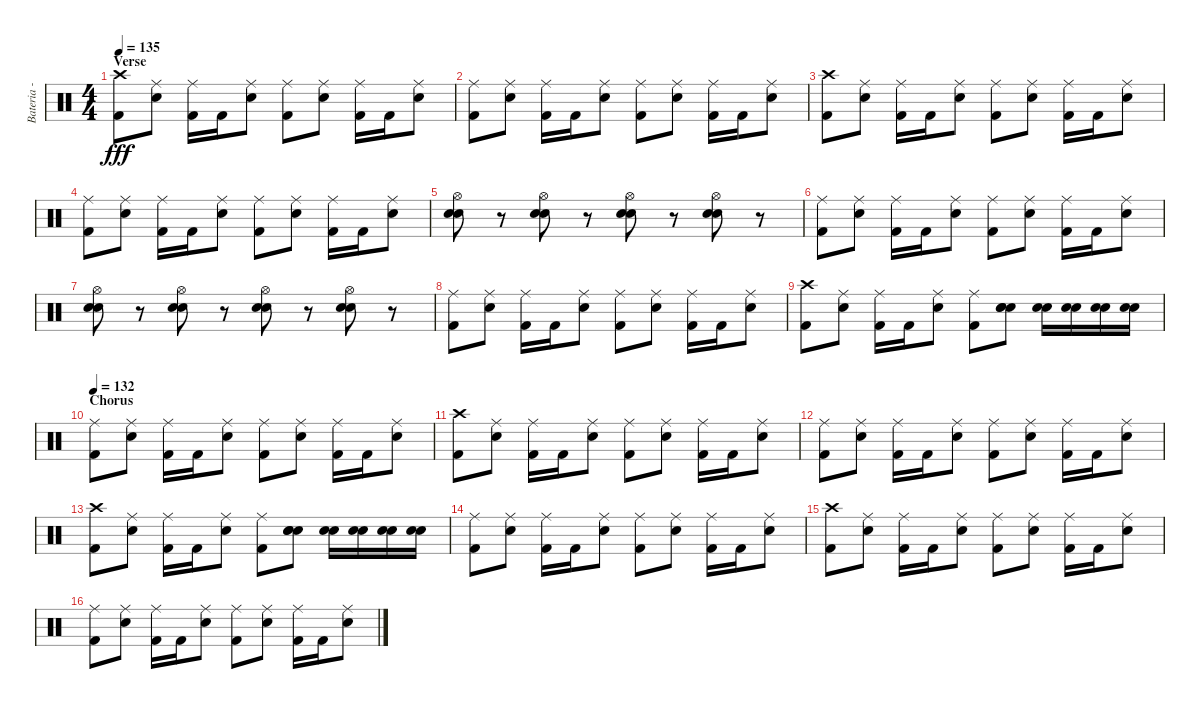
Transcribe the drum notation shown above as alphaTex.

\track ("Bateria - Larzon" "Bateria - ") {instrument percussion}
\staff {score}
\articulation defaults
\ts (4 4)
\section ("" "Verse")
\tempo 135
\clef neutral
\ks c
("Kick (hit) 2" "Crash high (hit)").8{dy fff} ("Electric Snare (hit)" "Ride (middle)").8 ("Ride (middle)" "Kick (hit) 2").16 "Kick (hit) 2".16 ("Electric Snare (hit)" "Ride (middle)").8 ("Kick (hit) 2" "Ride (middle)").8 ("Electric Snare (hit)" "Ride (middle)").8 ("Kick (hit) 2" "Ride (middle)").16 "Kick (hit) 2".16 ("Electric Snare (hit)" "Ride (middle)").8 |
("Kick (hit) 2" "Ride (middle)").8 ("Electric Snare (hit)" "Ride (middle)").8 ("Kick (hit) 2" "Ride (middle)").16 "Kick (hit) 2".16 ("Electric Snare (hit)" "Ride (middle)").8 ("Kick (hit) 2" "Ride (middle)").8 ("Electric Snare (hit)" "Ride (middle)").8 ("Kick (hit) 2" "Ride (middle)").16 "Kick (hit) 2".16 ("Electric Snare (hit)" "Ride (middle)").8 |
("Kick (hit) 2" "Crash high (hit)").8 ("Electric Snare (hit)" "Ride (middle)").8 ("Ride (middle)" "Kick (hit) 2").16 "Kick (hit) 2".16 ("Electric Snare (hit)" "Ride (middle)").8 ("Kick (hit) 2" "Ride (middle)").8 ("Electric Snare (hit)" "Ride (middle)").8 ("Kick (hit) 2" "Ride (middle)").16 "Kick (hit) 2".16 ("Electric Snare (hit)" "Ride (middle)").8 |
("Kick (hit) 2" "Ride (middle)").8 ("Electric Snare (hit)" "Ride (middle)").8 ("Kick (hit) 2" "Ride (middle)").16 "Kick (hit) 2".16 ("Electric Snare (hit)" "Ride (middle)").8 ("Kick (hit) 2" "Ride (middle)").8 ("Electric Snare (hit)" "Ride (middle)").8 ("Kick (hit) 2" "Ride (middle)").16 "Kick (hit) 2".16 ("Electric Snare (hit)" "Ride (middle)").8 |
("Electric Snare (hit)" "Snare (hit) 2" "Hi-Hat (open)").8 r.8 ("Electric Snare (hit)" "Snare (hit) 2" "Hi-Hat (open)").8 r.8 ("Electric Snare (hit)" "Snare (hit) 2" "Hi-Hat (open)").8 r.8 ("Electric Snare (hit)" "Snare (hit) 2" "Hi-Hat (open)").8 r.8 |
("Kick (hit) 2" "Ride (middle)").8 ("Electric Snare (hit)" "Ride (middle)").8 ("Kick (hit) 2" "Ride (middle)").16 "Kick (hit) 2".16 ("Electric Snare (hit)" "Ride (middle)").8 ("Kick (hit) 2" "Ride (middle)").8 ("Electric Snare (hit)" "Ride (middle)").8 ("Kick (hit) 2" "Ride (middle)").16 "Kick (hit) 2".16 ("Electric Snare (hit)" "Ride (middle)").8 |
("Electric Snare (hit)" "Snare (hit) 2" "Hi-Hat (open)").8 r.8 ("Electric Snare (hit)" "Snare (hit) 2" "Hi-Hat (open)").8 r.8 ("Electric Snare (hit)" "Snare (hit) 2" "Hi-Hat (open)").8 r.8 ("Electric Snare (hit)" "Snare (hit) 2" "Hi-Hat (open)").8 r.8 |
("Kick (hit) 2" "Ride (middle)").8 ("Electric Snare (hit)" "Ride (middle)").8 ("Kick (hit) 2" "Ride (middle)").16 "Kick (hit) 2".16 ("Electric Snare (hit)" "Ride (middle)").8 ("Kick (hit) 2" "Ride (middle)").8 ("Electric Snare (hit)" "Ride (middle)").8 ("Kick (hit) 2" "Ride (middle)").16 "Kick (hit) 2".16 ("Electric Snare (hit)" "Ride (middle)").8 |
("Kick (hit) 2" "Crash high (hit)").8 ("Electric Snare (hit)" "Ride (middle)").8 ("Ride (middle)" "Kick (hit) 2").16 "Kick (hit) 2".16 ("Electric Snare (hit)" "Ride (middle)").8 ("Kick (hit) 2" "Ride (middle)").8 ("Electric Snare (hit)" "Electric Snare (hit)" "Snare (hit) 2").8 ("Electric Snare (hit)" "Snare (hit) 2").16 ("Electric Snare (hit)" "Snare (hit) 2").16 ("Electric Snare (hit)" "Snare (hit) 2").16 ("Electric Snare (hit)" "Snare (hit) 2").16 |
\section ("" "Chorus")
\tempo 132
("Kick (hit) 2" "Ride (middle)").8 ("Electric Snare (hit)" "Ride (middle)").8 ("Kick (hit) 2" "Ride (middle)").16 "Kick (hit) 2".16 ("Electric Snare (hit)" "Ride (middle)").8 ("Kick (hit) 2" "Ride (middle)").8 ("Electric Snare (hit)" "Ride (middle)").8 ("Kick (hit) 2" "Ride (middle)").16 "Kick (hit) 2".16 ("Electric Snare (hit)" "Ride (middle)").8 |
("Kick (hit) 2" "Crash high (hit)").8 ("Electric Snare (hit)" "Ride (middle)").8 ("Ride (middle)" "Kick (hit) 2").16 "Kick (hit) 2".16 ("Electric Snare (hit)" "Ride (middle)").8 ("Kick (hit) 2" "Ride (middle)").8 ("Electric Snare (hit)" "Ride (middle)").8 ("Kick (hit) 2" "Ride (middle)").16 "Kick (hit) 2".16 ("Electric Snare (hit)" "Ride (middle)").8 |
("Kick (hit) 2" "Ride (middle)").8 ("Electric Snare (hit)" "Ride (middle)").8 ("Kick (hit) 2" "Ride (middle)").16 "Kick (hit) 2".16 ("Electric Snare (hit)" "Ride (middle)").8 ("Kick (hit) 2" "Ride (middle)").8 ("Electric Snare (hit)" "Ride (middle)").8 ("Kick (hit) 2" "Ride (middle)").16 "Kick (hit) 2".16 ("Electric Snare (hit)" "Ride (middle)").8 |
("Kick (hit) 2" "Crash high (hit)").8 ("Electric Snare (hit)" "Ride (middle)").8 ("Ride (middle)" "Kick (hit) 2").16 "Kick (hit) 2".16 ("Electric Snare (hit)" "Ride (middle)").8 ("Kick (hit) 2" "Ride (middle)").8 ("Electric Snare (hit)" "Electric Snare (hit)" "Snare (hit) 2").8 ("Electric Snare (hit)" "Snare (hit) 2").16 ("Electric Snare (hit)" "Snare (hit) 2").16 ("Electric Snare (hit)" "Snare (hit) 2").16 ("Electric Snare (hit)" "Snare (hit) 2").16 |
("Kick (hit) 2" "Ride (middle)").8 ("Electric Snare (hit)" "Ride (middle)").8 ("Kick (hit) 2" "Ride (middle)").16 "Kick (hit) 2".16 ("Electric Snare (hit)" "Ride (middle)").8 ("Kick (hit) 2" "Ride (middle)").8 ("Electric Snare (hit)" "Ride (middle)").8 ("Kick (hit) 2" "Ride (middle)").16 "Kick (hit) 2".16 ("Electric Snare (hit)" "Ride (middle)").8 |
("Kick (hit) 2" "Crash high (hit)").8 ("Electric Snare (hit)" "Ride (middle)").8 ("Ride (middle)" "Kick (hit) 2").16 "Kick (hit) 2".16 ("Electric Snare (hit)" "Ride (middle)").8 ("Kick (hit) 2" "Ride (middle)").8 ("Electric Snare (hit)" "Ride (middle)").8 ("Kick (hit) 2" "Ride (middle)").16 "Kick (hit) 2".16 ("Electric Snare (hit)" "Ride (middle)").8 |
("Kick (hit) 2" "Ride (middle)").8 ("Electric Snare (hit)" "Ride (middle)").8 ("Kick (hit) 2" "Ride (middle)").16 "Kick (hit) 2".16 ("Electric Snare (hit)" "Ride (middle)").8 ("Kick (hit) 2" "Ride (middle)").8 ("Electric Snare (hit)" "Ride (middle)").8 ("Kick (hit) 2" "Ride (middle)").16 "Kick (hit) 2".16 ("Electric Snare (hit)" "Ride (middle)").8
